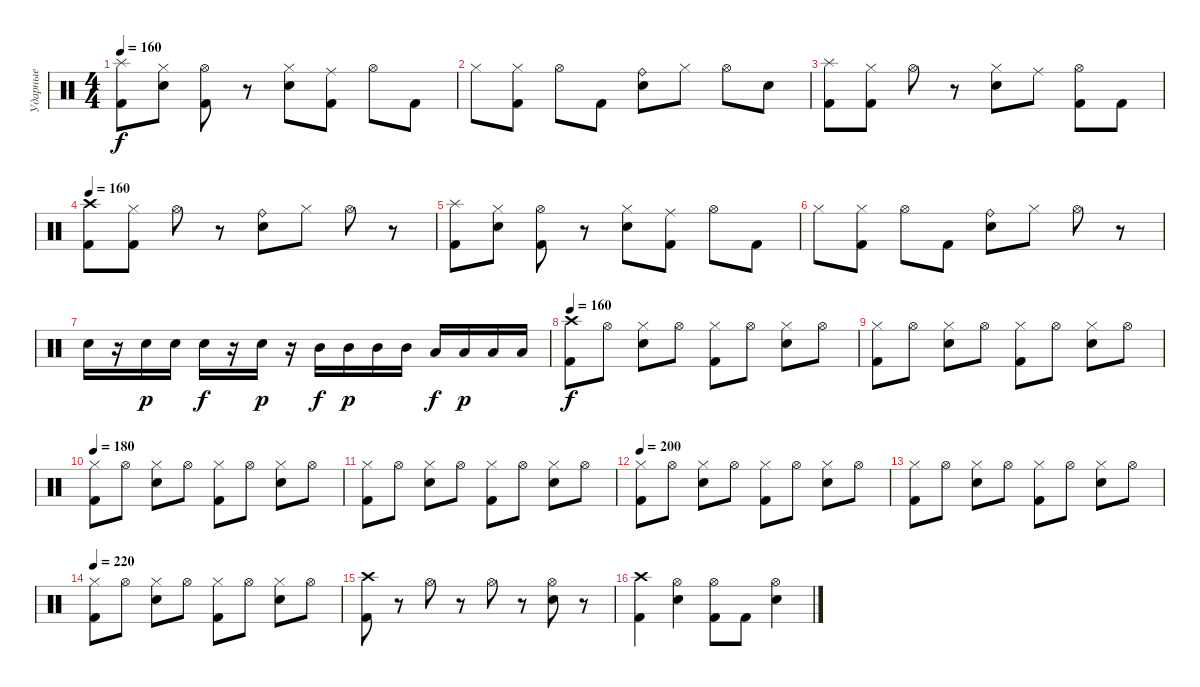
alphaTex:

\track ("Ударные" "Ударные") {instrument percussion}
\staff {score}
\articulation defaults
\ts (4 4)
\tempo 160
\clef neutral
\ks c
("Splash (hit)" "Kick (hit) 2").8{dy f} ("Hi-Hat (closed)" "Electric Snare (hit)").8 ("Hi-Hat (open)" "Kick (hit) 2").8 r.8 ("Hi-Hat (closed)" "Electric Snare (hit)").8 ("Ride (middle)" "Kick (hit) 2").8 "Hi-Hat (open)".8 "Kick (hit) 2".8 |
"Hi-Hat (closed)".8 ("Hi-Hat (closed)" "Kick (hit) 2").8 "Hi-Hat (open)".8 "Kick (hit) 2".8 ("Ride (bell)" "Electric Snare (hit)").8 "Hi-Hat (closed)".8 "Hi-Hat (open)".8 "Electric Snare (hit)".8 |
("Splash (hit)" "Kick (hit) 2").8 ("Hi-Hat (closed)" "Kick (hit) 2").8 "Hi-Hat (open)".8 r.8 ("Hi-Hat (closed)" "Electric Snare (hit)").8 "Ride (middle)".8 ("Hi-Hat (open)" "Kick (hit) 2").8 "Kick (hit) 2".8 |
\tempo 160
("Crash high (hit)" "Kick (hit) 2").8 ("Hi-Hat (closed)" "Kick (hit) 2").8 "Hi-Hat (open)".8 r.8 ("Ride (bell)" "Electric Snare (hit)").8 "Hi-Hat (closed)".8 "Hi-Hat (open)".8 r.8 |
("Splash (hit)" "Kick (hit) 2").8 ("Hi-Hat (closed)" "Electric Snare (hit)").8 ("Hi-Hat (open)" "Kick (hit) 2").8 r.8 ("Hi-Hat (closed)" "Electric Snare (hit)").8 ("Ride (middle)" "Kick (hit) 2").8 "Hi-Hat (open)".8 "Kick (hit) 2".8 |
"Hi-Hat (closed)".8 ("Hi-Hat (closed)" "Kick (hit) 2").8 "Hi-Hat (open)".8 "Kick (hit) 2".8 ("Ride (bell)" "Electric Snare (hit)").8 "Hi-Hat (closed)".8 "Hi-Hat (open)".8 r.8 |
"Electric Snare (hit)".16 r.16 "Electric Snare (hit)".16{dy p} "Electric Snare (hit)".16 "Electric Snare (hit)".16{dy f} r.16 "Electric Snare (hit)".16{dy p} r.16 "Mid Tom (hit)".16{dy f} "Mid Tom (hit)".16{dy p} "Mid Tom (hit)".16 "Mid Tom (hit)".16 "Low Tom (hit)".16{dy f} "Low Tom (hit)".16{dy p} "Low Tom (hit)".16 "Low Tom (hit)".16 |
\tempo 160
("Crash high (hit)" "Kick (hit) 2").8{dy f} "Hi-Hat (open)".8 ("Hi-Hat (closed)" "Electric Snare (hit)").8 "Hi-Hat (open)".8 ("Hi-Hat (closed)" "Kick (hit) 2").8 "Hi-Hat (open)".8 ("Hi-Hat (closed)" "Electric Snare (hit)").8 "Hi-Hat (open)".8 |
("Hi-Hat (closed)" "Kick (hit) 2").8 "Hi-Hat (open)".8 ("Hi-Hat (closed)" "Electric Snare (hit)").8 "Hi-Hat (open)".8 ("Hi-Hat (closed)" "Kick (hit) 2").8 "Hi-Hat (open)".8 ("Hi-Hat (closed)" "Electric Snare (hit)").8 "Hi-Hat (open)".8 |
\tempo 180
("Hi-Hat (closed)" "Kick (hit) 2").8 "Hi-Hat (open)".8 ("Hi-Hat (closed)" "Electric Snare (hit)").8 "Hi-Hat (open)".8 ("Hi-Hat (closed)" "Kick (hit) 2").8 "Hi-Hat (open)".8 ("Hi-Hat (closed)" "Electric Snare (hit)").8 "Hi-Hat (open)".8 |
("Hi-Hat (closed)" "Kick (hit) 2").8 "Hi-Hat (open)".8 ("Hi-Hat (closed)" "Electric Snare (hit)").8 "Hi-Hat (open)".8 ("Hi-Hat (closed)" "Kick (hit) 2").8 "Hi-Hat (open)".8 ("Hi-Hat (closed)" "Electric Snare (hit)").8 "Hi-Hat (open)".8 |
\tempo 200
("Hi-Hat (closed)" "Kick (hit) 2").8 "Hi-Hat (open)".8 ("Hi-Hat (closed)" "Electric Snare (hit)").8 "Hi-Hat (open)".8 ("Hi-Hat (closed)" "Kick (hit) 2").8 "Hi-Hat (open)".8 ("Hi-Hat (closed)" "Electric Snare (hit)").8 "Hi-Hat (open)".8 |
("Hi-Hat (closed)" "Kick (hit) 2").8 "Hi-Hat (open)".8 ("Hi-Hat (closed)" "Electric Snare (hit)").8 "Hi-Hat (open)".8 ("Hi-Hat (closed)" "Kick (hit) 2").8 "Hi-Hat (open)".8 ("Hi-Hat (closed)" "Electric Snare (hit)").8 "Hi-Hat (open)".8 |
\tempo 220
("Hi-Hat (closed)" "Kick (hit) 2").8 "Hi-Hat (open)".8 ("Hi-Hat (closed)" "Electric Snare (hit)").8 "Hi-Hat (open)".8 ("Hi-Hat (closed)" "Kick (hit) 2").8 "Hi-Hat (open)".8 ("Hi-Hat (closed)" "Electric Snare (hit)").8 "Hi-Hat (open)".8 |
("Crash high (hit)" "Kick (hit) 2").8 r.8 "Hi-Hat (open)".8 r.8 "Hi-Hat (open)".8 r.8 ("Hi-Hat (open)" "Electric Snare (hit)").8 r.8 |
("Crash high (hit)" "Kick (hit) 2").4 ("Hi-Hat (open)" "Electric Snare (hit)").4 ("Hi-Hat (open)" "Kick (hit) 2").8 "Kick (hit) 2".8 ("Hi-Hat (open)" "Electric Snare (hit)").4
